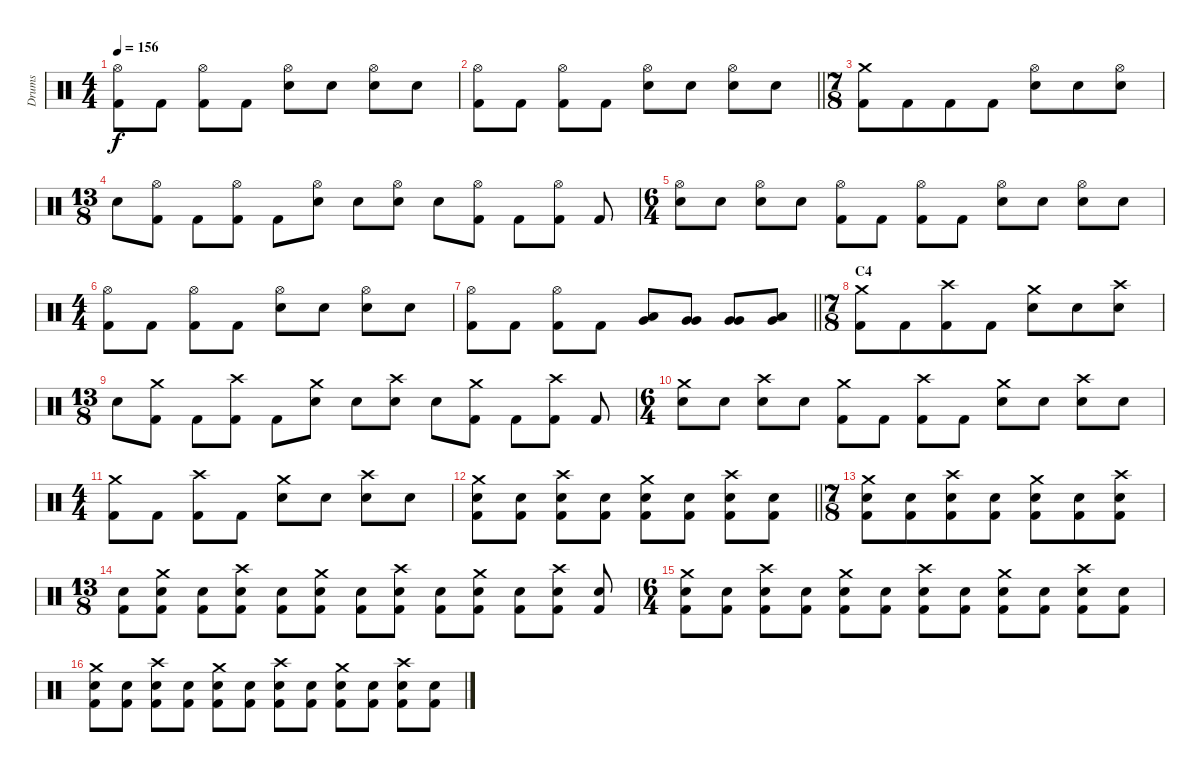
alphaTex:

\track ("Drums" "Drums") {instrument percussion}
\staff {score}
\articulation defaults
\ts (4 4)
\tempo 156
\clef neutral
\ks c
("Hi-Hat (open)" "Kick (hit) 2").8{dy f} "Kick (hit) 2".8 ("Hi-Hat (open)" "Kick (hit) 2").8 "Kick (hit) 2".8 ("Hi-Hat (open)" "Electric Snare (hit)").8 "Electric Snare (hit)".8 ("Hi-Hat (open)" "Electric Snare (hit)").8 "Electric Snare (hit)".8 |
\barLineRight lightlight
("Hi-Hat (open)" "Kick (hit) 2").8 "Kick (hit) 2".8 ("Hi-Hat (open)" "Kick (hit) 2").8 "Kick (hit) 2".8 ("Hi-Hat (open)" "Electric Snare (hit)").8 "Electric Snare (hit)".8 ("Hi-Hat (open)" "Electric Snare (hit)").8 "Electric Snare (hit)".8 |
\ts (7 8)
\section ("" "")
("Crash medium (hit)" "Kick (hit) 2").8 "Kick (hit) 2".8 "Kick (hit) 2".8 "Kick (hit) 2".8 ("Hi-Hat (open)" "Electric Snare (hit)").8 "Electric Snare (hit)".8 ("Hi-Hat (open)" "Electric Snare (hit)").8 |
\ts (13 8)
"Electric Snare (hit)".8 ("Hi-Hat (open)" "Kick (hit) 2").8 "Kick (hit) 2".8 ("Hi-Hat (open)" "Kick (hit) 2").8 "Kick (hit) 2".8 ("Hi-Hat (open)" "Electric Snare (hit)").8 "Electric Snare (hit)".8 ("Hi-Hat (open)" "Electric Snare (hit)").8 "Electric Snare (hit)".8 ("Hi-Hat (open)" "Kick (hit) 2").8 "Kick (hit) 2".8 ("Hi-Hat (open)" "Kick (hit) 2").8 "Kick (hit) 2".8 |
\ts (6 4)
("Hi-Hat (open)" "Electric Snare (hit)").8 "Electric Snare (hit)".8 ("Hi-Hat (open)" "Electric Snare (hit)").8 "Electric Snare (hit)".8 ("Hi-Hat (open)" "Kick (hit) 2").8 "Kick (hit) 2".8 ("Hi-Hat (open)" "Kick (hit) 2").8 "Kick (hit) 2".8 ("Hi-Hat (open)" "Electric Snare (hit)").8 "Electric Snare (hit)".8 ("Hi-Hat (open)" "Electric Snare (hit)").8 "Electric Snare (hit)".8 |
\ts (4 4)
("Hi-Hat (open)" "Kick (hit) 2").8 "Kick (hit) 2".8 ("Hi-Hat (open)" "Kick (hit) 2").8 "Kick (hit) 2".8 ("Hi-Hat (open)" "Electric Snare (hit)").8 "Electric Snare (hit)".8 ("Hi-Hat (open)" "Electric Snare (hit)").8 "Electric Snare (hit)".8 |
\barLineRight lightlight
("Hi-Hat (open)" "Kick (hit) 2").8 "Kick (hit) 2".8 ("Hi-Hat (open)" "Kick (hit) 2").8 "Kick (hit) 2".8 ("Low Tom (hit)" "Very Low Tom (hit)").8 ("Very Low Tom (hit)" "Very Low Tom (hit)").8 ("Very Low Tom (hit)" "Very Low Tom (hit)").8 ("Low Floor Tom (hit)" "Very Low Tom (hit)").8 |
\ts (7 8)
\section ("" "C4")
("Crash medium (hit)" "Kick (hit) 2").8 "Kick (hit) 2".8 ("Crash high (hit)" "Kick (hit) 2").8 "Kick (hit) 2".8 ("Crash medium (hit)" "Electric Snare (hit)").8 "Electric Snare (hit)".8 ("Crash high (hit)" "Electric Snare (hit)").8 |
\ts (13 8)
"Electric Snare (hit)".8 ("Crash medium (hit)" "Kick (hit) 2").8 "Kick (hit) 2".8 ("Crash high (hit)" "Kick (hit) 2").8 "Kick (hit) 2".8 ("Crash medium (hit)" "Electric Snare (hit)").8 "Electric Snare (hit)".8 ("Crash high (hit)" "Electric Snare (hit)").8 "Electric Snare (hit)".8 ("Crash medium (hit)" "Kick (hit) 2").8 "Kick (hit) 2".8 ("Crash high (hit)" "Kick (hit) 2").8 "Kick (hit) 2".8 |
\ts (6 4)
("Crash medium (hit)" "Electric Snare (hit)").8 "Electric Snare (hit)".8 ("Crash high (hit)" "Electric Snare (hit)").8 "Electric Snare (hit)".8 ("Crash medium (hit)" "Kick (hit) 2").8 "Kick (hit) 2".8 ("Crash high (hit)" "Kick (hit) 2").8 "Kick (hit) 2".8 ("Crash medium (hit)" "Electric Snare (hit)").8 "Electric Snare (hit)".8 ("Crash high (hit)" "Electric Snare (hit)").8 "Electric Snare (hit)".8 |
\ts (4 4)
("Crash medium (hit)" "Kick (hit) 2").8 "Kick (hit) 2".8 ("Crash high (hit)" "Kick (hit) 2").8 "Kick (hit) 2".8 ("Crash medium (hit)" "Electric Snare (hit)").8 "Electric Snare (hit)".8 ("Crash high (hit)" "Electric Snare (hit)").8 "Electric Snare (hit)".8 |
\barLineRight lightlight
("Crash medium (hit)" "Electric Snare (hit)" "Kick (hit) 2").8 ("Electric Snare (hit)" "Kick (hit) 2").8 ("Crash high (hit)" "Electric Snare (hit)" "Kick (hit) 2").8 ("Electric Snare (hit)" "Kick (hit) 2").8 ("Crash medium (hit)" "Electric Snare (hit)" "Kick (hit) 2").8 ("Electric Snare (hit)" "Kick (hit) 2").8 ("Crash high (hit)" "Electric Snare (hit)" "Kick (hit) 2").8 ("Electric Snare (hit)" "Kick (hit) 2").8 |
\ts (7 8)
\section ("" "")
("Crash medium (hit)" "Electric Snare (hit)" "Kick (hit) 2").8 ("Electric Snare (hit)" "Kick (hit) 2").8 ("Crash high (hit)" "Electric Snare (hit)" "Kick (hit) 2").8 ("Electric Snare (hit)" "Kick (hit) 2").8 ("Crash medium (hit)" "Electric Snare (hit)" "Kick (hit) 2").8 ("Electric Snare (hit)" "Kick (hit) 2").8 ("Crash high (hit)" "Electric Snare (hit)" "Kick (hit) 2").8 |
\ts (13 8)
("Electric Snare (hit)" "Kick (hit) 2").8 ("Crash medium (hit)" "Electric Snare (hit)" "Kick (hit) 2").8 ("Electric Snare (hit)" "Kick (hit) 2").8 ("Crash high (hit)" "Electric Snare (hit)" "Kick (hit) 2").8 ("Electric Snare (hit)" "Kick (hit) 2").8 ("Crash medium (hit)" "Electric Snare (hit)" "Kick (hit) 2").8 ("Electric Snare (hit)" "Kick (hit) 2").8 ("Crash high (hit)" "Electric Snare (hit)" "Kick (hit) 2").8 ("Electric Snare (hit)" "Kick (hit) 2").8 ("Crash medium (hit)" "Electric Snare (hit)" "Kick (hit) 2").8 ("Electric Snare (hit)" "Kick (hit) 2").8 ("Crash high (hit)" "Electric Snare (hit)" "Kick (hit) 2").8 ("Electric Snare (hit)" "Kick (hit) 2").8 |
\ts (6 4)
("Crash medium (hit)" "Electric Snare (hit)" "Kick (hit) 2").8 ("Electric Snare (hit)" "Kick (hit) 2").8 ("Crash high (hit)" "Electric Snare (hit)" "Kick (hit) 2").8 ("Electric Snare (hit)" "Kick (hit) 2").8 ("Crash medium (hit)" "Electric Snare (hit)" "Kick (hit) 2").8 ("Electric Snare (hit)" "Kick (hit) 2").8 ("Crash high (hit)" "Electric Snare (hit)" "Kick (hit) 2").8 ("Electric Snare (hit)" "Kick (hit) 2").8 ("Crash medium (hit)" "Electric Snare (hit)" "Kick (hit) 2").8 ("Electric Snare (hit)" "Kick (hit) 2").8 ("Crash high (hit)" "Electric Snare (hit)" "Kick (hit) 2").8 ("Electric Snare (hit)" "Kick (hit) 2").8 |
("Crash medium (hit)" "Electric Snare (hit)" "Kick (hit) 2").8 ("Electric Snare (hit)" "Kick (hit) 2").8 ("Crash high (hit)" "Electric Snare (hit)" "Kick (hit) 2").8 ("Electric Snare (hit)" "Kick (hit) 2").8 ("Crash medium (hit)" "Electric Snare (hit)" "Kick (hit) 2").8 ("Electric Snare (hit)" "Kick (hit) 2").8 ("Crash high (hit)" "Electric Snare (hit)" "Kick (hit) 2").8 ("Electric Snare (hit)" "Kick (hit) 2").8 ("Crash medium (hit)" "Electric Snare (hit)" "Kick (hit) 2").8 ("Electric Snare (hit)" "Kick (hit) 2").8 ("Crash high (hit)" "Electric Snare (hit)" "Kick (hit) 2").8 ("Electric Snare (hit)" "Kick (hit) 2").8
